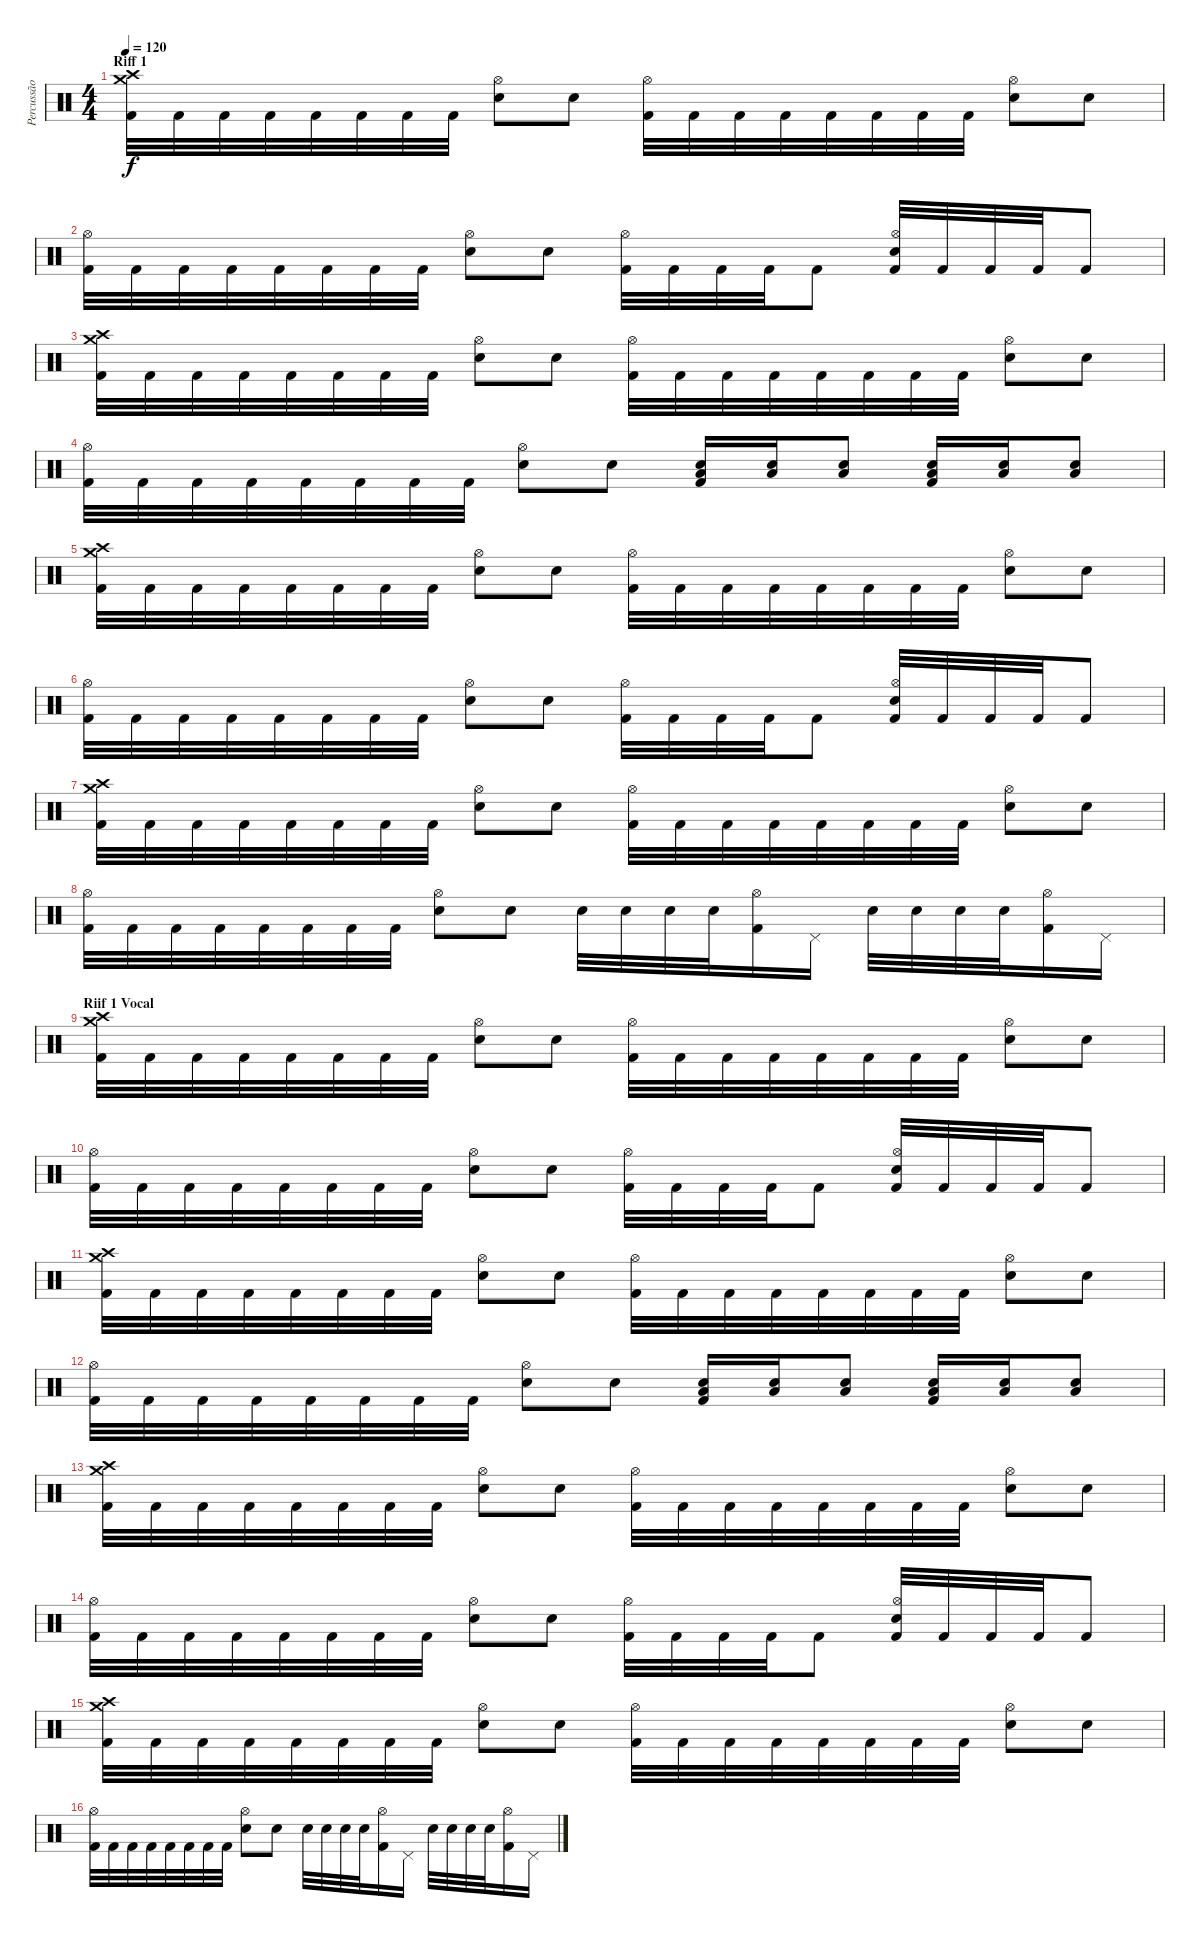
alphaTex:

\track ("Percussão" "Percussão") {instrument percussion}
\staff {score}
\articulation defaults
\ts (4 4)
\section ("" "Riff 1")
\tempo 120
\clef neutral
\ks c
("Crash medium (hit)" "Crash high (hit)" "Kick (hit) 2").32{dy f} "Kick (hit) 2".32 "Kick (hit) 2".32 "Kick (hit) 2".32 "Kick (hit) 2".32 "Kick (hit) 2".32 "Kick (hit) 2".32 "Kick (hit) 2".32 ("Hi-Hat (open)" "Electric Snare (hit)").8 "Electric Snare (hit)".8 ("Hi-Hat (open)" "Kick (hit) 2").32 "Kick (hit) 2".32 "Kick (hit) 2".32 "Kick (hit) 2".32 "Kick (hit) 2".32 "Kick (hit) 2".32 "Kick (hit) 2".32 "Kick (hit) 2".32 ("Hi-Hat (open)" "Electric Snare (hit)").8 "Electric Snare (hit)".8 |
("Hi-Hat (open)" "Kick (hit) 2").32 "Kick (hit) 2".32 "Kick (hit) 2".32 "Kick (hit) 2".32 "Kick (hit) 2".32 "Kick (hit) 2".32 "Kick (hit) 2".32 "Kick (hit) 2".32 ("Hi-Hat (open)" "Electric Snare (hit)").8 "Electric Snare (hit)".8 ("Hi-Hat (open)" "Kick (hit) 2").32 "Kick (hit) 2".32 "Kick (hit) 2".32 "Kick (hit) 2".32 "Kick (hit) 2".8 ("Hi-Hat (open)" "Electric Snare (hit)" "Kick (hit) 2").32 "Kick (hit) 2".32 "Kick (hit) 2".32 "Kick (hit) 2".32 "Kick (hit) 2".8 |
("Crash medium (hit)" "Crash high (hit)" "Kick (hit) 2").32 "Kick (hit) 2".32 "Kick (hit) 2".32 "Kick (hit) 2".32 "Kick (hit) 2".32 "Kick (hit) 2".32 "Kick (hit) 2".32 "Kick (hit) 2".32 ("Hi-Hat (open)" "Electric Snare (hit)").8 "Electric Snare (hit)".8 ("Hi-Hat (open)" "Kick (hit) 2").32 "Kick (hit) 2".32 "Kick (hit) 2".32 "Kick (hit) 2".32 "Kick (hit) 2".32 "Kick (hit) 2".32 "Kick (hit) 2".32 "Kick (hit) 2".32 ("Hi-Hat (open)" "Electric Snare (hit)").8 "Electric Snare (hit)".8 |
("Hi-Hat (open)" "Kick (hit) 2").32 "Kick (hit) 2".32 "Kick (hit) 2".32 "Kick (hit) 2".32 "Kick (hit) 2".32 "Kick (hit) 2".32 "Kick (hit) 2".32 "Kick (hit) 2".32 ("Hi-Hat (open)" "Electric Snare (hit)").8 "Electric Snare (hit)".8 ("Low Tom (hit)" "Electric Snare (hit)" "Kick (hit) 2").16 ("Low Tom (hit)" "Electric Snare (hit)").16 ("Low Tom (hit)" "Electric Snare (hit)").8 ("Low Tom (hit)" "Electric Snare (hit)" "Kick (hit) 2").16 ("Low Tom (hit)" "Electric Snare (hit)").16 ("Low Tom (hit)" "Electric Snare (hit)").8 |
("Crash medium (hit)" "Crash high (hit)" "Kick (hit) 2").32 "Kick (hit) 2".32 "Kick (hit) 2".32 "Kick (hit) 2".32 "Kick (hit) 2".32 "Kick (hit) 2".32 "Kick (hit) 2".32 "Kick (hit) 2".32 ("Hi-Hat (open)" "Electric Snare (hit)").8 "Electric Snare (hit)".8 ("Hi-Hat (open)" "Kick (hit) 2").32 "Kick (hit) 2".32 "Kick (hit) 2".32 "Kick (hit) 2".32 "Kick (hit) 2".32 "Kick (hit) 2".32 "Kick (hit) 2".32 "Kick (hit) 2".32 ("Hi-Hat (open)" "Electric Snare (hit)").8 "Electric Snare (hit)".8 |
("Hi-Hat (open)" "Kick (hit) 2").32 "Kick (hit) 2".32 "Kick (hit) 2".32 "Kick (hit) 2".32 "Kick (hit) 2".32 "Kick (hit) 2".32 "Kick (hit) 2".32 "Kick (hit) 2".32 ("Hi-Hat (open)" "Electric Snare (hit)").8 "Electric Snare (hit)".8 ("Hi-Hat (open)" "Kick (hit) 2").32 "Kick (hit) 2".32 "Kick (hit) 2".32 "Kick (hit) 2".32 "Kick (hit) 2".8 ("Hi-Hat (open)" "Electric Snare (hit)" "Kick (hit) 2").32 "Kick (hit) 2".32 "Kick (hit) 2".32 "Kick (hit) 2".32 "Kick (hit) 2".8 |
("Crash medium (hit)" "Crash high (hit)" "Kick (hit) 2").32 "Kick (hit) 2".32 "Kick (hit) 2".32 "Kick (hit) 2".32 "Kick (hit) 2".32 "Kick (hit) 2".32 "Kick (hit) 2".32 "Kick (hit) 2".32 ("Hi-Hat (open)" "Electric Snare (hit)").8 "Electric Snare (hit)".8 ("Hi-Hat (open)" "Kick (hit) 2").32 "Kick (hit) 2".32 "Kick (hit) 2".32 "Kick (hit) 2".32 "Kick (hit) 2".32 "Kick (hit) 2".32 "Kick (hit) 2".32 "Kick (hit) 2".32 ("Hi-Hat (open)" "Electric Snare (hit)").8 "Electric Snare (hit)".8 |
("Hi-Hat (open)" "Kick (hit) 2").32 "Kick (hit) 2".32 "Kick (hit) 2".32 "Kick (hit) 2".32 "Kick (hit) 2".32 "Kick (hit) 2".32 "Kick (hit) 2".32 "Kick (hit) 2".32 ("Hi-Hat (open)" "Electric Snare (hit)").8 "Electric Snare (hit)".8 "Electric Snare (hit)".32 "Electric Snare (hit)".32 "Electric Snare (hit)".32 "Electric Snare (hit)".32 ("Hi-Hat (open)" "Kick (hit) 2").16 "Pedal Hi-Hat (hit)".16 "Electric Snare (hit)".32 "Electric Snare (hit)".32 "Electric Snare (hit)".32 "Electric Snare (hit)".32 ("Hi-Hat (open)" "Kick (hit) 2").16 "Pedal Hi-Hat (hit)".16 |
\section ("" "Riif 1 Vocal")
("Crash medium (hit)" "Crash high (hit)" "Kick (hit) 2").32 "Kick (hit) 2".32 "Kick (hit) 2".32 "Kick (hit) 2".32 "Kick (hit) 2".32 "Kick (hit) 2".32 "Kick (hit) 2".32 "Kick (hit) 2".32 ("Hi-Hat (open)" "Electric Snare (hit)").8 "Electric Snare (hit)".8 ("Hi-Hat (open)" "Kick (hit) 2").32 "Kick (hit) 2".32 "Kick (hit) 2".32 "Kick (hit) 2".32 "Kick (hit) 2".32 "Kick (hit) 2".32 "Kick (hit) 2".32 "Kick (hit) 2".32 ("Hi-Hat (open)" "Electric Snare (hit)").8 "Electric Snare (hit)".8 |
("Hi-Hat (open)" "Kick (hit) 2").32 "Kick (hit) 2".32 "Kick (hit) 2".32 "Kick (hit) 2".32 "Kick (hit) 2".32 "Kick (hit) 2".32 "Kick (hit) 2".32 "Kick (hit) 2".32 ("Hi-Hat (open)" "Electric Snare (hit)").8 "Electric Snare (hit)".8 ("Hi-Hat (open)" "Kick (hit) 2").32 "Kick (hit) 2".32 "Kick (hit) 2".32 "Kick (hit) 2".32 "Kick (hit) 2".8 ("Hi-Hat (open)" "Electric Snare (hit)" "Kick (hit) 2").32 "Kick (hit) 2".32 "Kick (hit) 2".32 "Kick (hit) 2".32 "Kick (hit) 2".8 |
("Crash medium (hit)" "Crash high (hit)" "Kick (hit) 2").32 "Kick (hit) 2".32 "Kick (hit) 2".32 "Kick (hit) 2".32 "Kick (hit) 2".32 "Kick (hit) 2".32 "Kick (hit) 2".32 "Kick (hit) 2".32 ("Hi-Hat (open)" "Electric Snare (hit)").8 "Electric Snare (hit)".8 ("Hi-Hat (open)" "Kick (hit) 2").32 "Kick (hit) 2".32 "Kick (hit) 2".32 "Kick (hit) 2".32 "Kick (hit) 2".32 "Kick (hit) 2".32 "Kick (hit) 2".32 "Kick (hit) 2".32 ("Hi-Hat (open)" "Electric Snare (hit)").8 "Electric Snare (hit)".8 |
("Hi-Hat (open)" "Kick (hit) 2").32 "Kick (hit) 2".32 "Kick (hit) 2".32 "Kick (hit) 2".32 "Kick (hit) 2".32 "Kick (hit) 2".32 "Kick (hit) 2".32 "Kick (hit) 2".32 ("Hi-Hat (open)" "Electric Snare (hit)").8 "Electric Snare (hit)".8 ("Low Tom (hit)" "Electric Snare (hit)" "Kick (hit) 2").16 ("Low Tom (hit)" "Electric Snare (hit)").16 ("Low Tom (hit)" "Electric Snare (hit)").8 ("Low Tom (hit)" "Electric Snare (hit)" "Kick (hit) 2").16 ("Low Tom (hit)" "Electric Snare (hit)").16 ("Low Tom (hit)" "Electric Snare (hit)").8 |
("Crash medium (hit)" "Crash high (hit)" "Kick (hit) 2").32 "Kick (hit) 2".32 "Kick (hit) 2".32 "Kick (hit) 2".32 "Kick (hit) 2".32 "Kick (hit) 2".32 "Kick (hit) 2".32 "Kick (hit) 2".32 ("Hi-Hat (open)" "Electric Snare (hit)").8 "Electric Snare (hit)".8 ("Hi-Hat (open)" "Kick (hit) 2").32 "Kick (hit) 2".32 "Kick (hit) 2".32 "Kick (hit) 2".32 "Kick (hit) 2".32 "Kick (hit) 2".32 "Kick (hit) 2".32 "Kick (hit) 2".32 ("Hi-Hat (open)" "Electric Snare (hit)").8 "Electric Snare (hit)".8 |
("Hi-Hat (open)" "Kick (hit) 2").32 "Kick (hit) 2".32 "Kick (hit) 2".32 "Kick (hit) 2".32 "Kick (hit) 2".32 "Kick (hit) 2".32 "Kick (hit) 2".32 "Kick (hit) 2".32 ("Hi-Hat (open)" "Electric Snare (hit)").8 "Electric Snare (hit)".8 ("Hi-Hat (open)" "Kick (hit) 2").32 "Kick (hit) 2".32 "Kick (hit) 2".32 "Kick (hit) 2".32 "Kick (hit) 2".8 ("Hi-Hat (open)" "Electric Snare (hit)" "Kick (hit) 2").32 "Kick (hit) 2".32 "Kick (hit) 2".32 "Kick (hit) 2".32 "Kick (hit) 2".8 |
("Crash medium (hit)" "Crash high (hit)" "Kick (hit) 2").32 "Kick (hit) 2".32 "Kick (hit) 2".32 "Kick (hit) 2".32 "Kick (hit) 2".32 "Kick (hit) 2".32 "Kick (hit) 2".32 "Kick (hit) 2".32 ("Hi-Hat (open)" "Electric Snare (hit)").8 "Electric Snare (hit)".8 ("Hi-Hat (open)" "Kick (hit) 2").32 "Kick (hit) 2".32 "Kick (hit) 2".32 "Kick (hit) 2".32 "Kick (hit) 2".32 "Kick (hit) 2".32 "Kick (hit) 2".32 "Kick (hit) 2".32 ("Hi-Hat (open)" "Electric Snare (hit)").8 "Electric Snare (hit)".8 |
("Hi-Hat (open)" "Kick (hit) 2").32 "Kick (hit) 2".32 "Kick (hit) 2".32 "Kick (hit) 2".32 "Kick (hit) 2".32 "Kick (hit) 2".32 "Kick (hit) 2".32 "Kick (hit) 2".32 ("Hi-Hat (open)" "Electric Snare (hit)").8 "Electric Snare (hit)".8 "Electric Snare (hit)".32 "Electric Snare (hit)".32 "Electric Snare (hit)".32 "Electric Snare (hit)".32 ("Hi-Hat (open)" "Kick (hit) 2").16 "Pedal Hi-Hat (hit)".16 "Electric Snare (hit)".32 "Electric Snare (hit)".32 "Electric Snare (hit)".32 "Electric Snare (hit)".32 ("Hi-Hat (open)" "Kick (hit) 2").16 "Pedal Hi-Hat (hit)".16
